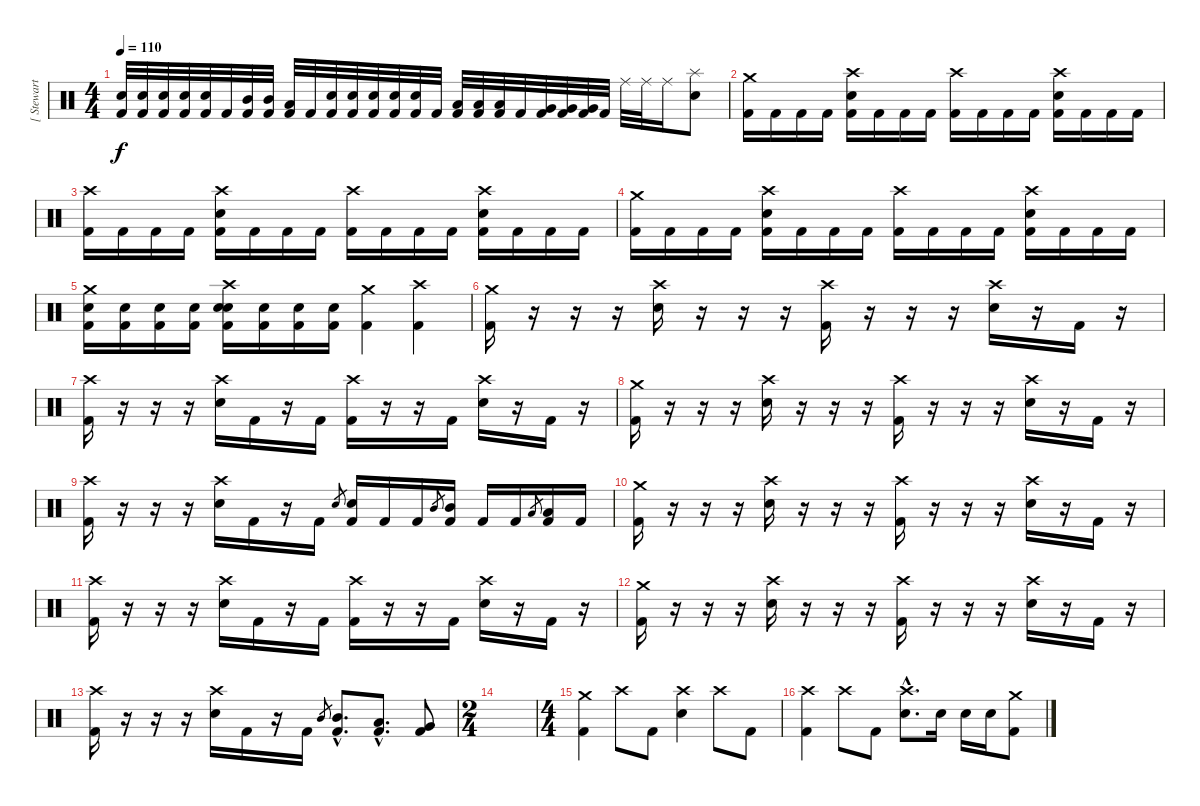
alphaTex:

\track ("[ Stewart ]" "[ Stewart ") {instrument percussion}
\staff {score}
\articulation defaults
\ts (4 4)
\tempo 110
\clef neutral
\ks c
("Electric Snare (hit)" "Kick (hit) 2").32{dy f} ("Electric Snare (hit)" "Kick (hit) 2").32 ("Electric Snare (hit)" "Kick (hit) 2").32 ("Electric Snare (hit)" "Kick (hit) 2").32 ("Electric Snare (hit)" "Kick (hit) 2").32 "Kick (hit) 2".32 ("Mid Tom (hit)" "Kick (hit) 2").32 ("Mid Tom (hit)" "Kick (hit) 2").32 ("Low Tom (hit)" "Kick (hit) 2").32 "Kick (hit) 2".32 ("Electric Snare (hit)" "Kick (hit) 2").32 ("Electric Snare (hit)" "Kick (hit) 2").32 ("Electric Snare (hit)" "Kick (hit) 2").32 ("Electric Snare (hit)" "Kick (hit) 2").32 ("Electric Snare (hit)" "Kick (hit) 2").32 "Kick (hit) 2".32 ("Low Tom (hit)" "Kick (hit) 2").32 ("Low Tom (hit)" "Kick (hit) 2").32 ("Low Tom (hit)" "Kick (hit) 2").32 "Kick (hit) 2".32 ("Very Low Tom (hit)" "Kick (hit) 2").32 ("Very Low Tom (hit)" "Kick (hit) 2").32 ("Very Low Tom (hit)" "Kick (hit) 2").32 "Kick (hit) 2".32 "Ride (middle)".32 "Ride (middle)".32 "Ride (middle)".16 ("Electric Snare (hit)" "Splash (hit)").8 |
("Kick (hit) 2" "Crash medium (hit)").16 "Kick (hit) 2".16 "Kick (hit) 2".16 "Kick (hit) 2".16 ("Kick (hit) 2" "Electric Snare (hit)" "Crash high (hit)").16 "Kick (hit) 2".16 "Kick (hit) 2".16 "Kick (hit) 2".16 ("Kick (hit) 2" "Crash high (hit)").16 "Kick (hit) 2".16 "Kick (hit) 2".16 "Kick (hit) 2".16 ("Kick (hit) 2" "Electric Snare (hit)" "Crash high (hit)").16 "Kick (hit) 2".16 "Kick (hit) 2".16 "Kick (hit) 2".16 |
("Kick (hit) 2" "Crash high (hit)").16 "Kick (hit) 2".16 "Kick (hit) 2".16 "Kick (hit) 2".16 ("Kick (hit) 2" "Electric Snare (hit)" "Crash high (hit)").16 "Kick (hit) 2".16 "Kick (hit) 2".16 "Kick (hit) 2".16 ("Kick (hit) 2" "Crash high (hit)").16 "Kick (hit) 2".16 "Kick (hit) 2".16 "Kick (hit) 2".16 ("Kick (hit) 2" "Electric Snare (hit)" "Crash high (hit)").16 "Kick (hit) 2".16 "Kick (hit) 2".16 "Kick (hit) 2".16 |
("Kick (hit) 2" "Crash medium (hit)").16 "Kick (hit) 2".16 "Kick (hit) 2".16 "Kick (hit) 2".16 ("Kick (hit) 2" "Electric Snare (hit)" "Crash high (hit)").16 "Kick (hit) 2".16 "Kick (hit) 2".16 "Kick (hit) 2".16 ("Kick (hit) 2" "Crash high (hit)").16 "Kick (hit) 2".16 "Kick (hit) 2".16 "Kick (hit) 2".16 ("Kick (hit) 2" "Electric Snare (hit)" "Crash high (hit)").16 "Kick (hit) 2".16 "Kick (hit) 2".16 "Kick (hit) 2".16 |
("Kick (hit) 2" "Electric Snare (hit)" "Crash medium (hit)").16 ("Kick (hit) 2" "Electric Snare (hit)").16 ("Kick (hit) 2" "Electric Snare (hit)").16 ("Kick (hit) 2" "Electric Snare (hit)").16 ("Kick (hit) 2" "Electric Snare (hit)" "Electric Snare (hit)" "Crash high (hit)").16 ("Kick (hit) 2" "Electric Snare (hit)").16 ("Kick (hit) 2" "Electric Snare (hit)").16 ("Kick (hit) 2" "Electric Snare (hit)").16 ("Kick (hit) 2" "Crash medium (hit)").4 ("Kick (hit) 2" "Crash high (hit)").4 |
("Kick (hit) 2" "Crash medium (hit)").16 r.16 r.16 r.16 ("Electric Snare (hit)" "Crash high (hit)").16 r.16 r.16 r.16 ("Kick (hit) 2" "Crash high (hit)").16 r.16 r.16 r.16 ("Electric Snare (hit)" "Crash high (hit)").16 r.16 "Kick (hit) 2".16 r.16 |
("Kick (hit) 2" "Crash high (hit)").16 r.16 r.16 r.16 ("Electric Snare (hit)" "Crash high (hit)").16 "Kick (hit) 2".16 r.16 "Kick (hit) 2".16 ("Kick (hit) 2" "Crash high (hit)").16 r.16 r.16 "Kick (hit) 2".16 ("Electric Snare (hit)" "Crash high (hit)").16 r.16 "Kick (hit) 2".16 r.16 |
("Kick (hit) 2" "Crash medium (hit)").16 r.16 r.16 r.16 ("Electric Snare (hit)" "Crash high (hit)").16 r.16 r.16 r.16 ("Kick (hit) 2" "Crash high (hit)").16 r.16 r.16 r.16 ("Electric Snare (hit)" "Crash high (hit)").16 r.16 "Kick (hit) 2".16 r.16 |
("Kick (hit) 2" "Crash high (hit)").16 r.16 r.16 r.16 ("Electric Snare (hit)" "Crash high (hit)").16 "Kick (hit) 2".16 r.16 "Kick (hit) 2".16 "Electric Snare (hit)".8{gr} ("Kick (hit) 2" "Electric Snare (hit)").16 "Kick (hit) 2".16 "Kick (hit) 2".16 "Mid Tom (hit)".8{gr} ("Kick (hit) 2" "Mid Tom (hit)").16 "Kick (hit) 2".16 "Kick (hit) 2".16 "Low Tom (hit)".8{gr} ("Kick (hit) 2" "Low Tom (hit)").16 "Kick (hit) 2".16 |
("Kick (hit) 2" "Crash medium (hit)").16 r.16 r.16 r.16 ("Electric Snare (hit)" "Crash high (hit)").16 r.16 r.16 r.16 ("Kick (hit) 2" "Crash high (hit)").16 r.16 r.16 r.16 ("Electric Snare (hit)" "Crash high (hit)").16 r.16 "Kick (hit) 2".16 r.16 |
("Kick (hit) 2" "Crash high (hit)").16 r.16 r.16 r.16 ("Electric Snare (hit)" "Crash high (hit)").16 "Kick (hit) 2".16 r.16 "Kick (hit) 2".16 ("Kick (hit) 2" "Crash high (hit)").16 r.16 r.16 "Kick (hit) 2".16 ("Electric Snare (hit)" "Crash high (hit)").16 r.16 "Kick (hit) 2".16 r.16 |
("Kick (hit) 2" "Crash medium (hit)").16 r.16 r.16 r.16 ("Electric Snare (hit)" "Crash high (hit)").16 r.16 r.16 r.16 ("Kick (hit) 2" "Crash high (hit)").16 r.16 r.16 r.16 ("Electric Snare (hit)" "Crash high (hit)").16 r.16 "Kick (hit) 2".16 r.16 |
("Kick (hit) 2" "Crash high (hit)").16 r.16 r.16 r.16 ("Electric Snare (hit)" "Crash high (hit)").16 "Kick (hit) 2".16 r.16 "Kick (hit) 2".16 "Mid Tom (hit)".8{gr} ("Mid Tom (hit)"{hac} "Kick (hit) 2"{hac}).8{d} ("Low Tom (hit)"{hac} "Kick (hit) 2"{hac}).8{d} ("Very Low Tom (hit)" "Kick (hit) 2").8 |
\ts (2 4)
|
\ts (4 4)
("Kick (hit) 2" "Crash medium (hit)").4 "Crash high (hit)".8 "Kick (hit) 2".8 ("Electric Snare (hit)" "Crash high (hit)").4 "Crash high (hit)".8 "Kick (hit) 2".8 |
("Kick (hit) 2" "Crash high (hit)").4 "Crash high (hit)".8 "Kick (hit) 2".8 ("Electric Snare (hit)"{hac} "Crash high (hit)"{hac}).8{d} "Electric Snare (hit)".16 "Electric Snare (hit)".16 "Electric Snare (hit)".16 ("Kick (hit) 2" "Crash medium (hit)").8
